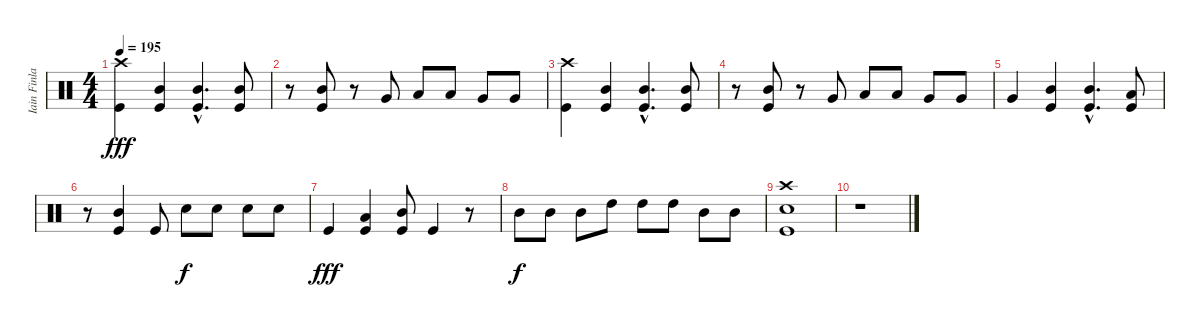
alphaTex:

\track ("Iain Finlay (Batería)" "Iain Finla") {instrument percussion}
\staff {score}
\articulation defaults
\ts (4 4)
\tempo 195
\clef neutral
\ks c
("Crash high (hit)" "Kick (hit)").4{dy fff} ("Mid Tom (hit)" "Kick (hit)").4 ("Mid Tom (hit)"{hac} "Kick (hit)"{hac}).4{d} ("Mid Tom (hit)" "Kick (hit)").8 |
r.8 ("Mid Tom (hit)" "Kick (hit)").8 r.8 "Very Low Tom (hit)".8 "Low Tom (hit)".8 "Low Tom (hit)".8 "Very Low Tom (hit)".8 "Very Low Tom (hit)".8 |
("Crash high (hit)" "Kick (hit)").4 ("Mid Tom (hit)" "Kick (hit)").4 ("Mid Tom (hit)"{hac} "Kick (hit)"{hac}).4{d} ("Mid Tom (hit)" "Kick (hit)").8 |
r.8 ("Mid Tom (hit)" "Kick (hit)").8 r.8 "Very Low Tom (hit)".8 "Low Tom (hit)".8 "Low Tom (hit)".8 "Very Low Tom (hit)".8 "Very Low Tom (hit)".8 |
"Very Low Tom (hit)".4 ("Mid Tom (hit)" "Kick (hit)").4 ("Mid Tom (hit)"{hac} "Kick (hit)"{hac}).4{d} ("Low Tom (hit)" "Kick (hit)").8 |
r.8 ("Mid Tom (hit)" "Kick (hit)").4 "Kick (hit)".8 "Electric Snare (hit)".8{dy f} "Electric Snare (hit)".8 "Electric Snare (hit)".8 "Electric Snare (hit)".8 |
"Kick (hit)".4{dy fff} ("Low Tom (hit)" "Kick (hit)").4 ("Mid Tom (hit)" "Kick (hit)").8 "Kick (hit)".4 r.8 |
"Mid Tom (hit)".8{dy f} "Mid Tom (hit)".8 "Mid Tom (hit)".8 "High Tom (hit)".8 "High Tom (hit)".8 "High Tom (hit)".8 "Mid Tom (hit)".8 "Mid Tom (hit)".8 |
("Crash high (hit)" "Electric Snare (hit)" "Kick (hit)").1 |
r.1
